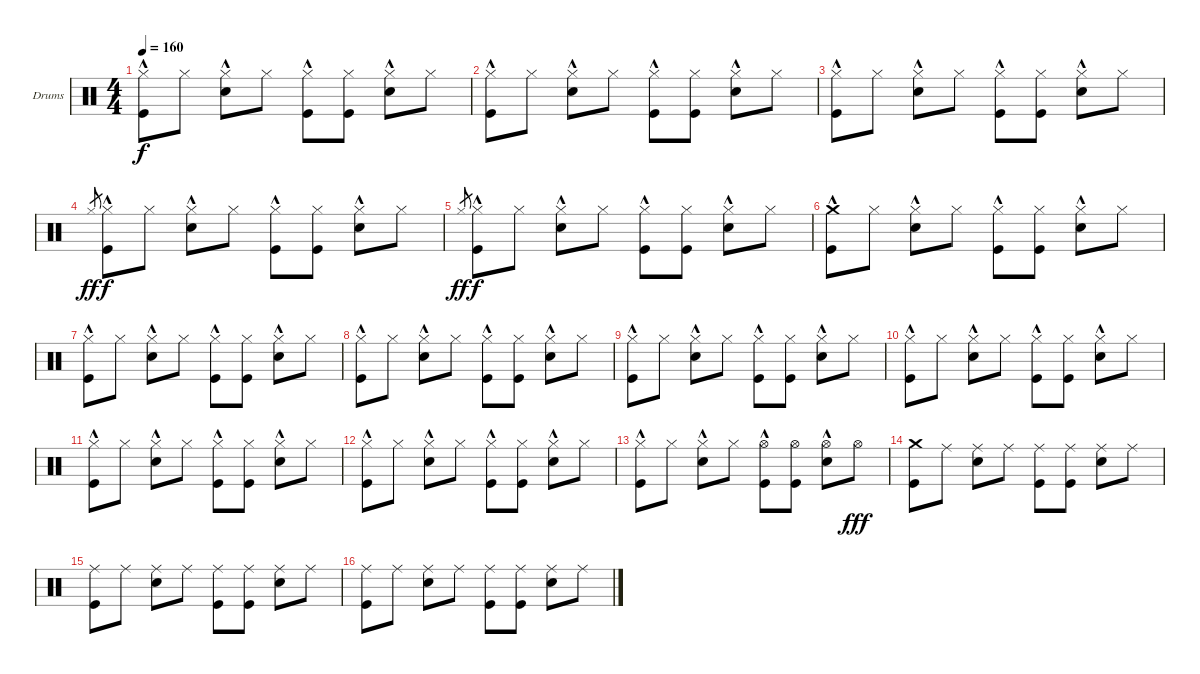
\bracketExtendMode groupsimilarinstruments
\firstSystemTrackNameOrientation horizontal
\otherSystemsTrackNameOrientation horizontal
\track ("Drumkit" "Drums") {instrument percussion}
\staff {score}
\articulation defaults
\ts (4 4)
\tempo 160
\clef neutral
\ks c
("Kick (hit)" "Hi-Hat (closed)"{hac}).8{dy f} "Hi-Hat (closed)".8 ("Snare (hit) 2" "Hi-Hat (closed)"{hac}).8 "Hi-Hat (closed)".8 ("Kick (hit)" "Hi-Hat (closed)"{hac}).8 ("Kick (hit)" "Hi-Hat (closed)").8 ("Snare (hit) 2" "Hi-Hat (closed)"{hac}).8 "Hi-Hat (closed)".8 |
("Kick (hit)" "Hi-Hat (closed)"{hac}).8 "Hi-Hat (closed)".8 ("Snare (hit) 2" "Hi-Hat (closed)"{hac}).8 "Hi-Hat (closed)".8 ("Kick (hit)" "Hi-Hat (closed)"{hac}).8 ("Kick (hit)" "Hi-Hat (closed)").8 ("Snare (hit) 2" "Hi-Hat (closed)"{hac}).8 "Hi-Hat (closed)".8 |
("Kick (hit)" "Hi-Hat (closed)"{hac}).8 "Hi-Hat (closed)".8 ("Snare (hit) 2" "Hi-Hat (closed)"{hac}).8 "Hi-Hat (closed)".8 ("Kick (hit)" "Hi-Hat (closed)"{hac}).8 ("Kick (hit)" "Hi-Hat (closed)").8 ("Snare (hit) 2" "Hi-Hat (closed)"{hac}).8 "Hi-Hat (closed)".8 |
"Hi-Hat (closed)".8{gr dy ff} ("Kick (hit)" "Hi-Hat (closed)"{hac}).8{dy f} "Hi-Hat (closed)".8 ("Snare (hit) 2" "Hi-Hat (closed)"{hac}).8 "Hi-Hat (closed)".8 ("Kick (hit)" "Hi-Hat (closed)"{hac}).8 ("Kick (hit)" "Hi-Hat (closed)").8 ("Snare (hit) 2" "Hi-Hat (closed)"{hac}).8 "Hi-Hat (closed)".8 |
"Hi-Hat (closed)".8{gr dy ff} ("Kick (hit)" "Hi-Hat (closed)"{hac}).8{dy f} "Hi-Hat (closed)".8 ("Snare (hit) 2" "Hi-Hat (closed)"{hac}).8 "Hi-Hat (closed)".8 ("Kick (hit)" "Hi-Hat (closed)"{hac}).8 ("Kick (hit)" "Hi-Hat (closed)").8 ("Snare (hit) 2" "Hi-Hat (closed)"{hac}).8 "Hi-Hat (closed)".8 |
("Kick (hit)" "Crash medium (hit)"{hac}).8 "Hi-Hat (closed)".8 ("Snare (hit) 2" "Hi-Hat (closed)"{hac}).8 "Hi-Hat (closed)".8 ("Kick (hit)" "Hi-Hat (closed)"{hac}).8 ("Kick (hit)" "Hi-Hat (closed)").8 ("Snare (hit) 2" "Hi-Hat (closed)"{hac}).8 "Hi-Hat (closed)".8 |
("Kick (hit)" "Hi-Hat (closed)"{hac}).8 "Hi-Hat (closed)".8 ("Snare (hit) 2" "Hi-Hat (closed)"{hac}).8 "Hi-Hat (closed)".8 ("Kick (hit)" "Hi-Hat (closed)"{hac}).8 ("Kick (hit)" "Hi-Hat (closed)").8 ("Snare (hit) 2" "Hi-Hat (closed)"{hac}).8 "Hi-Hat (closed)".8 |
("Kick (hit)" "Hi-Hat (closed)"{hac}).8 "Hi-Hat (closed)".8 ("Snare (hit) 2" "Hi-Hat (closed)"{hac}).8 "Hi-Hat (closed)".8 ("Kick (hit)" "Hi-Hat (closed)"{hac}).8 ("Kick (hit)" "Hi-Hat (closed)").8 ("Snare (hit) 2" "Hi-Hat (closed)"{hac}).8 "Hi-Hat (closed)".8 |
("Kick (hit)" "Hi-Hat (closed)"{hac}).8 "Hi-Hat (closed)".8 ("Snare (hit) 2" "Hi-Hat (closed)"{hac}).8 "Hi-Hat (closed)".8 ("Kick (hit)" "Hi-Hat (closed)"{hac}).8 ("Kick (hit)" "Hi-Hat (closed)").8 ("Snare (hit) 2" "Hi-Hat (closed)"{hac}).8 "Hi-Hat (closed)".8 |
("Kick (hit)" "Hi-Hat (closed)"{hac}).8 "Hi-Hat (closed)".8 ("Snare (hit) 2" "Hi-Hat (closed)"{hac}).8 "Hi-Hat (closed)".8 ("Kick (hit)" "Hi-Hat (closed)"{hac}).8 ("Kick (hit)" "Hi-Hat (closed)").8 ("Snare (hit) 2" "Hi-Hat (closed)"{hac}).8 "Hi-Hat (closed)".8 |
("Kick (hit)" "Hi-Hat (closed)"{hac}).8 "Hi-Hat (closed)".8 ("Snare (hit) 2" "Hi-Hat (closed)"{hac}).8 "Hi-Hat (closed)".8 ("Kick (hit)" "Hi-Hat (closed)"{hac}).8 ("Kick (hit)" "Hi-Hat (closed)").8 ("Snare (hit) 2" "Hi-Hat (closed)"{hac}).8 "Hi-Hat (closed)".8 |
("Kick (hit)" "Hi-Hat (closed)"{hac}).8 "Hi-Hat (closed)".8 ("Snare (hit) 2" "Hi-Hat (closed)"{hac}).8 "Hi-Hat (closed)".8 ("Kick (hit)" "Hi-Hat (closed)"{hac}).8 ("Kick (hit)" "Hi-Hat (closed)").8 ("Snare (hit) 2" "Hi-Hat (closed)"{hac}).8 "Hi-Hat (closed)".8 |
("Kick (hit)" "Hi-Hat (closed)"{hac}).8 "Hi-Hat (closed)".8 ("Snare (hit) 2" "Hi-Hat (closed)"{hac}).8 "Hi-Hat (closed)".8 ("Kick (hit)" "Hi-Hat (open)"{hac}).8 ("Kick (hit)" "Hi-Hat (open)").8 ("Snare (hit) 2" "Hi-Hat (open)"{hac}).8 "Hi-Hat (open)".8{dy fff} |
("Kick (hit)" "Crash medium (hit)").8 "Ride (middle)".8 ("Ride (middle)" "Snare (hit) 2").8 "Ride (middle)".8 ("Ride (middle)" "Kick (hit)").8 ("Ride (middle)" "Kick (hit)").8 ("Ride (middle)" "Snare (hit) 2").8 "Ride (middle)".8 |
("Kick (hit)" "Ride (middle)").8 "Ride (middle)".8 ("Ride (middle)" "Snare (hit) 2").8 "Ride (middle)".8 ("Ride (middle)" "Kick (hit)").8 ("Ride (middle)" "Kick (hit)").8 ("Ride (middle)" "Snare (hit) 2").8 "Ride (middle)".8 |
("Kick (hit)" "Ride (middle)").8 "Ride (middle)".8 ("Ride (middle)" "Snare (hit) 2").8 "Ride (middle)".8 ("Ride (middle)" "Kick (hit)").8 ("Ride (middle)" "Kick (hit)").8 ("Ride (middle)" "Snare (hit) 2").8 "Ride (middle)".8
